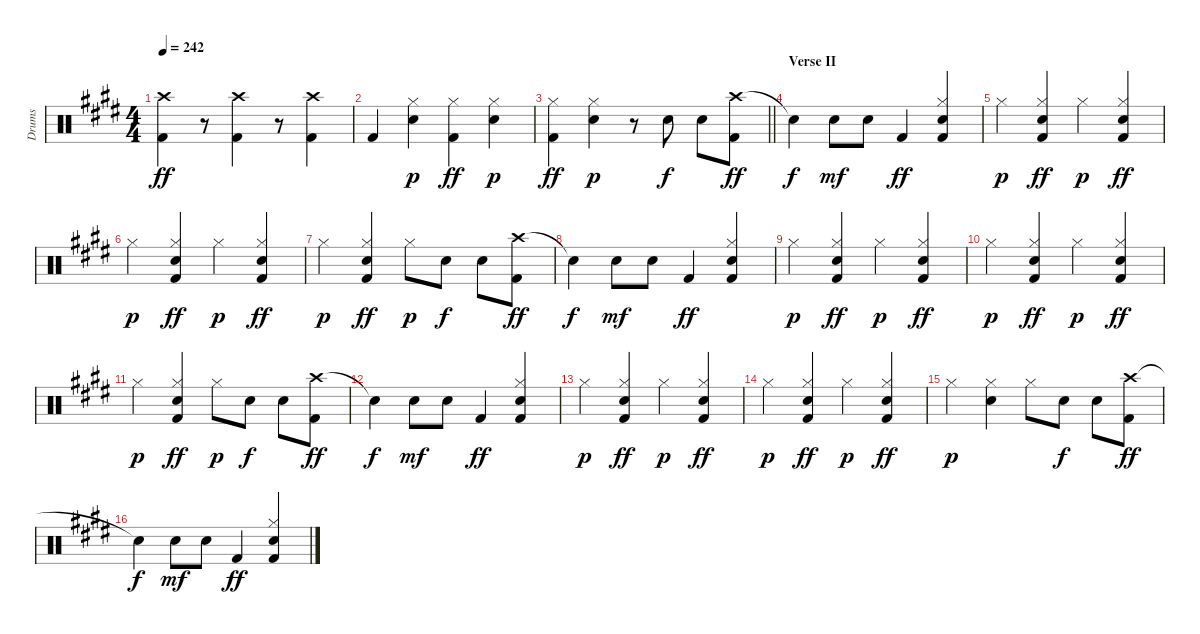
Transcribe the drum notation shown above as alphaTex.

\track ("Drums" "Drums") {instrument percussion}
\staff {score}
\articulation defaults
\ts (4 4)
\tempo 242
\clef neutral
\ks e
("Crash high (hit)" "Kick (hit) 2").4{dy ff} r.8 ("Crash high (hit)" "Kick (hit) 2").4 r.8 ("Crash high (hit)" "Kick (hit) 2").4 |
"Kick (hit) 2".4 ("Hi-Hat (closed)" "Electric Snare (hit)").4{dy p} ("Hi-Hat (closed)" "Kick (hit) 2").4{dy ff} ("Hi-Hat (closed)" "Electric Snare (hit)").4{dy p} |
\barLineRight lightlight
("Hi-Hat (closed)" "Kick (hit) 2").4{dy ff} ("Hi-Hat (closed)" "Electric Snare (hit)").4{dy p} r.8 "Electric Snare (hit)".8{dy f} "Electric Snare (hit)".8 ("Crash high (hit)" "Kick (hit) 2").8{dy ff} |
\section ("" "Verse II")
"Snare (hit)"{t}.4{dy f} "Electric Snare (hit)".8{dy mf} "Electric Snare (hit)".8 "Kick (hit) 2".4{dy ff} ("Hi-Hat (closed)" "Electric Snare (hit)" "Kick (hit) 2").4 |
"Hi-Hat (closed)".4{dy p} ("Hi-Hat (closed)" "Electric Snare (hit)" "Kick (hit) 2").4{dy ff} "Hi-Hat (closed)".4{dy p} ("Hi-Hat (closed)" "Electric Snare (hit)" "Kick (hit) 2").4{dy ff} |
"Hi-Hat (closed)".4{dy p} ("Hi-Hat (closed)" "Electric Snare (hit)" "Kick (hit) 2").4{dy ff} "Hi-Hat (closed)".4{dy p} ("Hi-Hat (closed)" "Electric Snare (hit)" "Kick (hit) 2").4{dy ff} |
"Hi-Hat (closed)".4{dy p} ("Hi-Hat (closed)" "Electric Snare (hit)" "Kick (hit) 2").4{dy ff} "Hi-Hat (closed)".8{dy p} "Electric Snare (hit)".8{dy f} "Electric Snare (hit)".8 ("Crash high (hit)" "Kick (hit) 2").8{dy ff} |
"Snare (hit)"{t}.4{dy f} "Electric Snare (hit)".8{dy mf} "Electric Snare (hit)".8 "Kick (hit) 2".4{dy ff} ("Hi-Hat (closed)" "Electric Snare (hit)" "Kick (hit) 2").4 |
"Hi-Hat (closed)".4{dy p} ("Hi-Hat (closed)" "Electric Snare (hit)" "Kick (hit) 2").4{dy ff} "Hi-Hat (closed)".4{dy p} ("Hi-Hat (closed)" "Electric Snare (hit)" "Kick (hit) 2").4{dy ff} |
"Hi-Hat (closed)".4{dy p} ("Hi-Hat (closed)" "Electric Snare (hit)" "Kick (hit) 2").4{dy ff} "Hi-Hat (closed)".4{dy p} ("Hi-Hat (closed)" "Electric Snare (hit)" "Kick (hit) 2").4{dy ff} |
"Hi-Hat (closed)".4{dy p} ("Hi-Hat (closed)" "Electric Snare (hit)" "Kick (hit) 2").4{dy ff} "Hi-Hat (closed)".8{dy p} "Electric Snare (hit)".8{dy f} "Electric Snare (hit)".8 ("Crash high (hit)" "Kick (hit) 2").8{dy ff} |
"Snare (hit)"{t}.4{dy f} "Electric Snare (hit)".8{dy mf} "Electric Snare (hit)".8 "Kick (hit) 2".4{dy ff} ("Hi-Hat (closed)" "Electric Snare (hit)" "Kick (hit) 2").4 |
"Hi-Hat (closed)".4{dy p} ("Hi-Hat (closed)" "Electric Snare (hit)" "Kick (hit) 2").4{dy ff} "Hi-Hat (closed)".4{dy p} ("Hi-Hat (closed)" "Electric Snare (hit)" "Kick (hit) 2").4{dy ff} |
"Hi-Hat (closed)".4{dy p} ("Hi-Hat (closed)" "Electric Snare (hit)" "Kick (hit) 2").4{dy ff} "Hi-Hat (closed)".4{dy p} ("Hi-Hat (closed)" "Electric Snare (hit)" "Kick (hit) 2").4{dy ff} |
"Hi-Hat (closed)".4{dy p} ("Hi-Hat (closed)" "Electric Snare (hit)").4 "Hi-Hat (closed)".8 "Electric Snare (hit)".8{dy f} "Electric Snare (hit)".8 ("Crash high (hit)" "Kick (hit) 2").8{dy ff} |
"Snare (hit)"{t}.4{dy f} "Electric Snare (hit)".8{dy mf} "Electric Snare (hit)".8 "Kick (hit) 2".4{dy ff} ("Hi-Hat (closed)" "Electric Snare (hit)" "Kick (hit) 2").4
